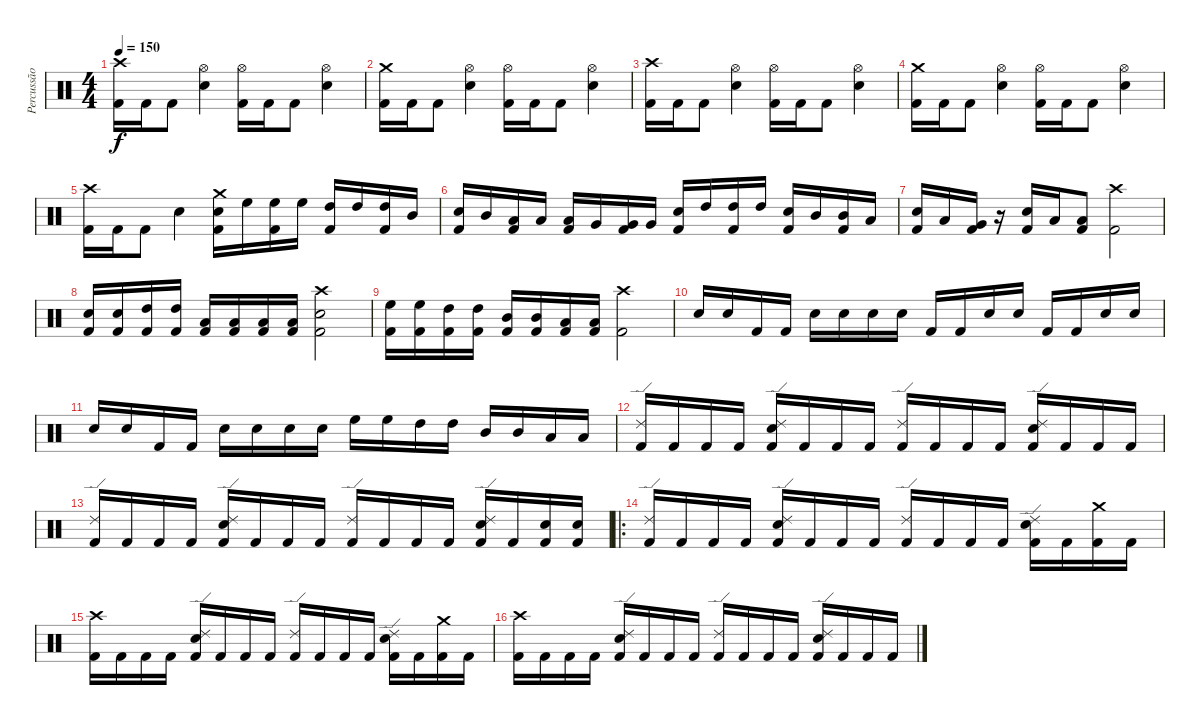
\track ("Percussão" "Percussão") {instrument percussion}
\staff {score}
\articulation defaults
\ts (4 4)
\tempo 150
\clef neutral
\ks c
("Crash high (hit)" "Kick (hit) 2").16{dy f} "Kick (hit) 2".16 "Kick (hit) 2".8 ("Hi-Hat (open)" "Snare (hit) 2").4 ("Hi-Hat (open)" "Kick (hit) 2").16 "Kick (hit) 2".16 "Kick (hit) 2".8 ("Hi-Hat (open)" "Snare (hit) 2").4 |
("Crash medium (hit)" "Kick (hit) 2").16 "Kick (hit) 2".16 "Kick (hit) 2".8 ("Hi-Hat (open)" "Snare (hit) 2").4 ("Hi-Hat (open)" "Kick (hit) 2").16 "Kick (hit) 2".16 "Kick (hit) 2".8 ("Hi-Hat (open)" "Snare (hit) 2").4 |
("Crash high (hit)" "Kick (hit) 2").16 "Kick (hit) 2".16 "Kick (hit) 2".8 ("Hi-Hat (open)" "Snare (hit) 2").4 ("Hi-Hat (open)" "Kick (hit) 2").16 "Kick (hit) 2".16 "Kick (hit) 2".8 ("Hi-Hat (open)" "Snare (hit) 2").4 |
("Crash medium (hit)" "Kick (hit) 2").16 "Kick (hit) 2".16 "Kick (hit) 2".8 ("Hi-Hat (open)" "Snare (hit) 2").4 ("Hi-Hat (open)" "Kick (hit) 2").16 "Kick (hit) 2".16 "Kick (hit) 2".8 ("Hi-Hat (open)" "Snare (hit) 2").4 |
("Crash high (hit)" "Kick (hit) 2").16 "Kick (hit) 2".16 "Kick (hit) 2".8 "Snare (hit) 2".4 ("Crash medium (hit)" "Snare (hit) 2" "Kick (hit) 2").16 "High Floor Tom (hit)".16 ("High Floor Tom (hit)" "Kick (hit) 2").16 "High Floor Tom (hit)".16 ("High Tom (hit)" "Kick (hit) 2").16 "High Tom (hit)".16 ("High Tom (hit)" "Kick (hit) 2").16 "Mid Tom (hit)".16 |
("Snare (hit) 2" "Kick (hit) 2").16 "Mid Tom (hit)".16 ("Low Tom (hit)" "Kick (hit) 2").16 "Low Tom (hit)".16 ("Low Tom (hit)" "Kick (hit) 2").16 "Very Low Tom (hit)".16 ("Very Low Tom (hit)" "Kick (hit) 2").16 "Very Low Tom (hit)".16 ("Snare (hit) 2" "Kick (hit) 2").16 "High Tom (hit)".16 ("High Tom (hit)" "Kick (hit) 2").16 "High Tom (hit)".16 ("Snare (hit) 2" "Kick (hit) 2").16 "Mid Tom (hit)".16 ("Mid Tom (hit)" "Kick (hit) 2").16 "Low Tom (hit)".16 |
("Snare (hit) 2" "Kick (hit) 2").16 "Low Tom (hit)".16 ("Very Low Tom (hit)" "Kick (hit) 2").16 r.16 ("Snare (hit) 2" "Kick (hit) 2").16 "Low Floor Tom (hit)".16 ("Low Floor Tom (hit)" "Kick (hit) 2").8 ("Crash high (hit)" "Kick (hit) 2").2 |
("Snare (hit) 2" "Kick (hit) 2").16 ("Snare (hit) 2" "Kick (hit) 2").16 ("High Tom (hit)" "Kick (hit) 2").16 ("High Tom (hit)" "Kick (hit) 2").16 ("Low Tom (hit)" "Kick (hit) 2").16 ("Low Tom (hit)" "Kick (hit) 2").16 ("Low Tom (hit)" "Kick (hit) 2").16 ("Low Tom (hit)" "Kick (hit) 2").16 ("Crash high (hit)" "Snare (hit) 2" "Kick (hit) 2").2 |
("High Floor Tom (hit)" "Kick (hit) 2").16 ("High Floor Tom (hit)" "Kick (hit) 2").16 ("High Tom (hit)" "Kick (hit) 2").16 ("High Tom (hit)" "Kick (hit) 2").16 ("Mid Tom (hit)" "Kick (hit) 2").16 ("Mid Tom (hit)" "Kick (hit) 2").16 ("Low Tom (hit)" "Kick (hit) 2").16 ("Low Tom (hit)" "Kick (hit) 2").16 ("Crash high (hit)" "Kick (hit) 2").2 |
"Snare (hit) 2".16 "Snare (hit) 2".16 "Kick (hit) 2".16 "Kick (hit) 2".16 "Snare (hit) 2".16 "Snare (hit) 2".16 "Snare (hit) 2".16 "Snare (hit) 2".16 "Kick (hit) 2".16 "Kick (hit) 2".16 "Snare (hit) 2".16 "Snare (hit) 2".16 "Kick (hit) 2".16 "Kick (hit) 2".16 "Snare (hit) 2".16 "Snare (hit) 2".16 |
"Snare (hit) 2".16 "Snare (hit) 2".16 "Kick (hit) 2".16 "Kick (hit) 2".16 "Snare (hit) 2".16 "Snare (hit) 2".16 "Snare (hit) 2".16 "Snare (hit) 2".16 "High Floor Tom (hit)".16 "High Floor Tom (hit)".16 "High Tom (hit)".16 "High Tom (hit)".16 "Mid Tom (hit)".16 "Mid Tom (hit)".16 "Low Tom (hit)".16 "Low Tom (hit)".16 |
("Ride (edge) 2" "Kick (hit) 2").16 "Kick (hit) 2".16 "Kick (hit) 2".16 "Kick (hit) 2".16 ("Ride (edge) 2" "Snare (hit) 2" "Kick (hit) 2").16 "Kick (hit) 2".16 "Kick (hit) 2".16 "Kick (hit) 2".16 ("Ride (edge) 2" "Kick (hit) 2").16 "Kick (hit) 2".16 "Kick (hit) 2".16 "Kick (hit) 2".16 ("Ride (edge) 2" "Snare (hit) 2" "Kick (hit) 2").16 "Kick (hit) 2".16 "Kick (hit) 2".16 "Kick (hit) 2".16 |
("Ride (edge) 2" "Kick (hit) 2").16 "Kick (hit) 2".16 "Kick (hit) 2".16 "Kick (hit) 2".16 ("Ride (edge) 2" "Snare (hit) 2" "Kick (hit) 2").16 "Kick (hit) 2".16 "Kick (hit) 2".16 "Kick (hit) 2".16 ("Ride (edge) 2" "Kick (hit) 2").16 "Kick (hit) 2".16 "Kick (hit) 2".16 "Kick (hit) 2".16 ("Ride (edge) 2" "Snare (hit) 2" "Kick (hit) 2").16 "Kick (hit) 2".16 ("Snare (hit) 2" "Kick (hit) 2").16 ("Snare (hit) 2" "Kick (hit) 2").16 |
\ro
("Ride (edge) 2" "Kick (hit) 2").16 "Kick (hit) 2".16 "Kick (hit) 2".16 "Kick (hit) 2".16 ("Ride (edge) 2" "Snare (hit) 2" "Kick (hit) 2").16 "Kick (hit) 2".16 "Kick (hit) 2".16 "Kick (hit) 2".16 ("Ride (edge) 2" "Kick (hit) 2").16 "Kick (hit) 2".16 "Kick (hit) 2".16 "Kick (hit) 2".16 ("Ride (edge) 2" "Snare (hit) 2" "Kick (hit) 2").16 "Kick (hit) 2".16 ("Crash medium (hit)" "Kick (hit) 2").16 "Kick (hit) 2".16 |
("Crash high (hit)" "Kick (hit) 2").16 "Kick (hit) 2".16 "Kick (hit) 2".16 "Kick (hit) 2".16 ("Ride (edge) 2" "Snare (hit) 2" "Kick (hit) 2").16 "Kick (hit) 2".16 "Kick (hit) 2".16 "Kick (hit) 2".16 ("Ride (edge) 2" "Kick (hit) 2").16 "Kick (hit) 2".16 "Kick (hit) 2".16 "Kick (hit) 2".16 ("Ride (edge) 2" "Snare (hit) 2" "Kick (hit) 2").16 "Kick (hit) 2".16 ("Crash medium (hit)" "Kick (hit) 2").16 "Kick (hit) 2".16 |
("Crash high (hit)" "Kick (hit) 2").16 "Kick (hit) 2".16 "Kick (hit) 2".16 "Kick (hit) 2".16 ("Ride (edge) 2" "Snare (hit) 2" "Kick (hit) 2").16 "Kick (hit) 2".16 "Kick (hit) 2".16 "Kick (hit) 2".16 ("Ride (edge) 2" "Kick (hit) 2").16 "Kick (hit) 2".16 "Kick (hit) 2".16 "Kick (hit) 2".16 ("Ride (edge) 2" "Snare (hit) 2" "Kick (hit) 2").16 "Kick (hit) 2".16 "Kick (hit) 2".16 "Kick (hit) 2".16
